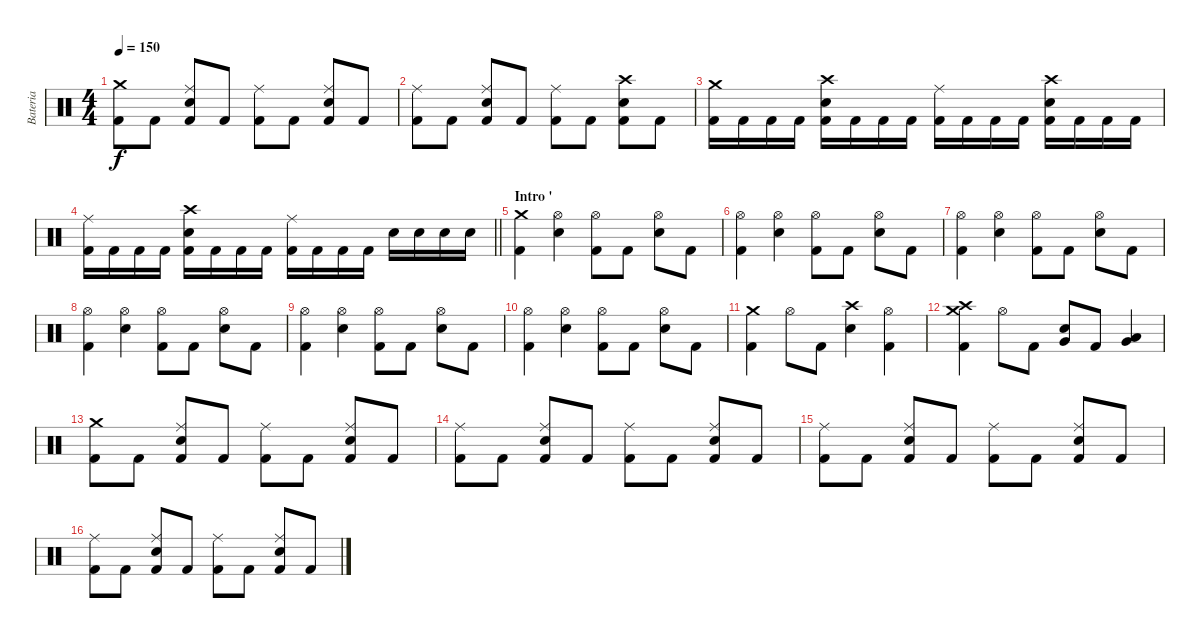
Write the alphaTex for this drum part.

\track ("Bateria" "Bateria") {instrument percussion}
\staff {score}
\articulation defaults
\ts (4 4)
\tempo 150
\clef neutral
\ks c
("Crash medium (hit)" "Kick (hit) 2").8{dy f} "Kick (hit) 2".8 ("Ride (middle)" "Snare (hit) 2" "Kick (hit) 2").8 "Kick (hit) 2".8 ("Ride (middle)" "Kick (hit) 2").8 "Kick (hit) 2".8 ("Ride (middle)" "Snare (hit) 2" "Kick (hit) 2").8 "Kick (hit) 2".8 |
("Ride (middle)" "Kick (hit) 2").8 "Kick (hit) 2".8 ("Ride (middle)" "Snare (hit) 2" "Kick (hit) 2").8 "Kick (hit) 2".8 ("Ride (middle)" "Kick (hit) 2").8 "Kick (hit) 2".8 ("Crash high (hit)" "Snare (hit) 2" "Kick (hit) 2").8 "Kick (hit) 2".8 |
("Crash medium (hit)" "Kick (hit) 2").16 "Kick (hit) 2".16 "Kick (hit) 2".16 "Kick (hit) 2".16 ("Crash high (hit)" "Snare (hit) 2" "Kick (hit) 2").16 "Kick (hit) 2".16 "Kick (hit) 2".16 "Kick (hit) 2".16 ("Ride (middle)" "Kick (hit) 2").16 "Kick (hit) 2".16 "Kick (hit) 2".16 "Kick (hit) 2".16 ("Crash high (hit)" "Snare (hit) 2" "Kick (hit) 2").16 "Kick (hit) 2".16 "Kick (hit) 2".16 "Kick (hit) 2".16 |
\barLineRight lightlight
("Ride (middle)" "Kick (hit) 2").16 "Kick (hit) 2".16 "Kick (hit) 2".16 "Kick (hit) 2".16 ("Crash high (hit)" "Snare (hit) 2" "Kick (hit) 2").16 "Kick (hit) 2".16 "Kick (hit) 2".16 "Kick (hit) 2".16 ("Ride (middle)" "Kick (hit) 2").16 "Kick (hit) 2".16 "Kick (hit) 2".16 "Kick (hit) 2".16 "Snare (hit) 2".16 "Snare (hit) 2".16 "Snare (hit) 2".16 "Snare (hit) 2".16 |
\section ("" "Intro '")
("Crash medium (hit)" "Kick (hit) 2").4 ("Hi-Hat (open)" "Snare (hit) 2").4 ("Hi-Hat (open)" "Kick (hit) 2").8 "Kick (hit) 2".8 ("Hi-Hat (open)" "Snare (hit) 2").8 "Kick (hit) 2".8 |
("Hi-Hat (open)" "Kick (hit) 2").4 ("Hi-Hat (open)" "Snare (hit) 2").4 ("Hi-Hat (open)" "Kick (hit) 2").8 "Kick (hit) 2".8 ("Hi-Hat (open)" "Snare (hit) 2").8 "Kick (hit) 2".8 |
("Hi-Hat (open)" "Kick (hit) 2").4 ("Hi-Hat (open)" "Snare (hit) 2").4 ("Hi-Hat (open)" "Kick (hit) 2").8 "Kick (hit) 2".8 ("Hi-Hat (open)" "Snare (hit) 2").8 "Kick (hit) 2".8 |
("Hi-Hat (open)" "Kick (hit) 2").4 ("Hi-Hat (open)" "Snare (hit) 2").4 ("Hi-Hat (open)" "Kick (hit) 2").8 "Kick (hit) 2".8 ("Hi-Hat (open)" "Snare (hit) 2").8 "Kick (hit) 2".8 |
("Hi-Hat (open)" "Kick (hit) 2").4 ("Hi-Hat (open)" "Snare (hit) 2").4 ("Hi-Hat (open)" "Kick (hit) 2").8 "Kick (hit) 2".8 ("Hi-Hat (open)" "Snare (hit) 2").8 "Kick (hit) 2".8 |
("Hi-Hat (open)" "Kick (hit) 2").4 ("Hi-Hat (open)" "Snare (hit) 2").4 ("Hi-Hat (open)" "Kick (hit) 2").8 "Kick (hit) 2".8 ("Hi-Hat (open)" "Snare (hit) 2").8 "Kick (hit) 2".8 |
("Crash medium (hit)" "Kick (hit) 2").4 "Hi-Hat (open)".8 "Kick (hit) 2".8 ("Crash high (hit)" "Snare (hit) 2").4 ("Hi-Hat (open)" "Kick (hit) 2").4 |
("Crash high (hit)" "Crash medium (hit)" "Kick (hit) 2").4 "Hi-Hat (open)".8 "Kick (hit) 2".8 ("Very Low Tom (hit)" "Snare (hit) 2").8 "Kick (hit) 2".8 ("Low Tom (hit)" "Very Low Tom (hit)").4 |
("Crash medium (hit)" "Kick (hit) 2").8 "Kick (hit) 2".8 ("Ride (middle)" "Snare (hit) 2" "Kick (hit) 2").8 "Kick (hit) 2".8 ("Ride (middle)" "Kick (hit) 2").8 "Kick (hit) 2".8 ("Ride (middle)" "Snare (hit) 2" "Kick (hit) 2").8 "Kick (hit) 2".8 |
("Ride (middle)" "Kick (hit) 2").8 "Kick (hit) 2".8 ("Ride (middle)" "Snare (hit) 2" "Kick (hit) 2").8 "Kick (hit) 2".8 ("Ride (middle)" "Kick (hit) 2").8 "Kick (hit) 2".8 ("Ride (middle)" "Snare (hit) 2" "Kick (hit) 2").8 "Kick (hit) 2".8 |
("Ride (middle)" "Kick (hit) 2").8 "Kick (hit) 2".8 ("Ride (middle)" "Snare (hit) 2" "Kick (hit) 2").8 "Kick (hit) 2".8 ("Ride (middle)" "Kick (hit) 2").8 "Kick (hit) 2".8 ("Ride (middle)" "Snare (hit) 2" "Kick (hit) 2").8 "Kick (hit) 2".8 |
("Ride (middle)" "Kick (hit) 2").8 "Kick (hit) 2".8 ("Ride (middle)" "Snare (hit) 2" "Kick (hit) 2").8 "Kick (hit) 2".8 ("Ride (middle)" "Kick (hit) 2").8 "Kick (hit) 2".8 ("Ride (middle)" "Snare (hit) 2" "Kick (hit) 2").8 "Kick (hit) 2".8
